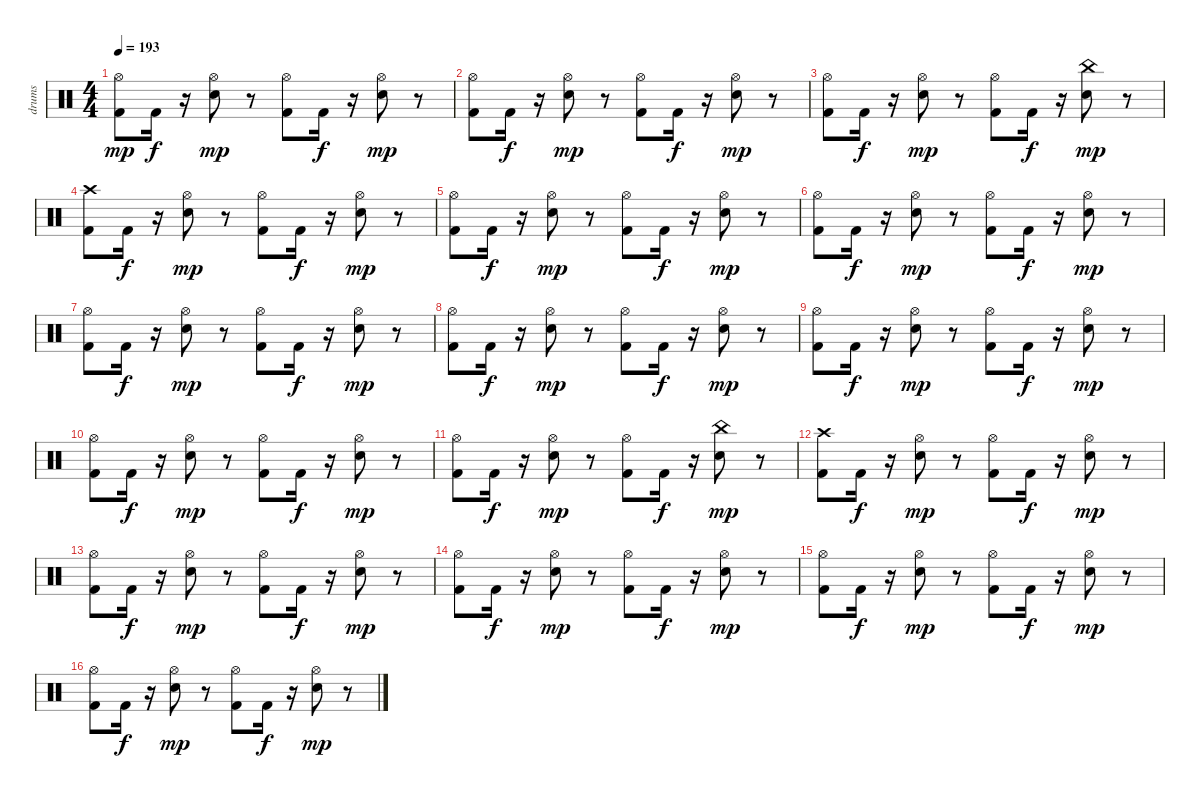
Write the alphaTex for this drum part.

\track ("drums" "drums") {instrument percussion}
\staff {score}
\articulation defaults
\ts (4 4)
\tempo 193
\clef neutral
\ks c
("Kick (hit) 2" "Hi-Hat (open)").8{dy mp} "Kick (hit) 2".16{dy f} r.16 ("Snare (hit) 2" "Hi-Hat (open)").8{dy mp} r.8 ("Kick (hit) 2" "Hi-Hat (open)").8 "Kick (hit) 2".16{dy f} r.16 ("Snare (hit) 2" "Hi-Hat (open)").8{dy mp} r.8 |
("Kick (hit) 2" "Hi-Hat (open)").8 "Kick (hit) 2".16{dy f} r.16 ("Snare (hit) 2" "Hi-Hat (open)").8{dy mp} r.8 ("Kick (hit) 2" "Hi-Hat (open)").8 "Kick (hit) 2".16{dy f} r.16 ("Snare (hit) 2" "Hi-Hat (open)").8{dy mp} r.8 |
("Kick (hit) 2" "Hi-Hat (open)").8 "Kick (hit) 2".16{dy f} r.16 ("Snare (hit) 2" "Hi-Hat (open)").8{dy mp} r.8 ("Kick (hit) 2" "Hi-Hat (open)").8 "Kick (hit) 2".16{dy f} r.16 ("Snare (hit) 2" "China (hit)").8{dy mp} r.8 |
("Kick (hit) 2" "Crash high (hit)").8 "Kick (hit) 2".16{dy f} r.16 ("Snare (hit) 2" "Hi-Hat (open)").8{dy mp} r.8 ("Kick (hit) 2" "Hi-Hat (open)").8 "Kick (hit) 2".16{dy f} r.16 ("Snare (hit) 2" "Hi-Hat (open)").8{dy mp} r.8 |
("Kick (hit) 2" "Hi-Hat (open)").8 "Kick (hit) 2".16{dy f} r.16 ("Snare (hit) 2" "Hi-Hat (open)").8{dy mp} r.8 ("Kick (hit) 2" "Hi-Hat (open)").8 "Kick (hit) 2".16{dy f} r.16 ("Snare (hit) 2" "Hi-Hat (open)").8{dy mp} r.8 |
("Kick (hit) 2" "Hi-Hat (open)").8 "Kick (hit) 2".16{dy f} r.16 ("Snare (hit) 2" "Hi-Hat (open)").8{dy mp} r.8 ("Kick (hit) 2" "Hi-Hat (open)").8 "Kick (hit) 2".16{dy f} r.16 ("Snare (hit) 2" "Hi-Hat (open)").8{dy mp} r.8 |
("Kick (hit) 2" "Hi-Hat (open)").8 "Kick (hit) 2".16{dy f} r.16 ("Snare (hit) 2" "Hi-Hat (open)").8{dy mp} r.8 ("Kick (hit) 2" "Hi-Hat (open)").8 "Kick (hit) 2".16{dy f} r.16 ("Snare (hit) 2" "Hi-Hat (open)").8{dy mp} r.8 |
("Kick (hit) 2" "Hi-Hat (open)").8 "Kick (hit) 2".16{dy f} r.16 ("Snare (hit) 2" "Hi-Hat (open)").8{dy mp} r.8 ("Kick (hit) 2" "Hi-Hat (open)").8 "Kick (hit) 2".16{dy f} r.16 ("Snare (hit) 2" "Hi-Hat (open)").8{dy mp} r.8 |
("Kick (hit) 2" "Hi-Hat (open)").8 "Kick (hit) 2".16{dy f} r.16 ("Snare (hit) 2" "Hi-Hat (open)").8{dy mp} r.8 ("Kick (hit) 2" "Hi-Hat (open)").8 "Kick (hit) 2".16{dy f} r.16 ("Snare (hit) 2" "Hi-Hat (open)").8{dy mp} r.8 |
("Kick (hit) 2" "Hi-Hat (open)").8 "Kick (hit) 2".16{dy f} r.16 ("Snare (hit) 2" "Hi-Hat (open)").8{dy mp} r.8 ("Kick (hit) 2" "Hi-Hat (open)").8 "Kick (hit) 2".16{dy f} r.16 ("Snare (hit) 2" "Hi-Hat (open)").8{dy mp} r.8 |
("Kick (hit) 2" "Hi-Hat (open)").8 "Kick (hit) 2".16{dy f} r.16 ("Snare (hit) 2" "Hi-Hat (open)").8{dy mp} r.8 ("Kick (hit) 2" "Hi-Hat (open)").8 "Kick (hit) 2".16{dy f} r.16 ("Snare (hit) 2" "China (hit)").8{dy mp} r.8 |
("Kick (hit) 2" "Crash high (hit)").8 "Kick (hit) 2".16{dy f} r.16 ("Snare (hit) 2" "Hi-Hat (open)").8{dy mp} r.8 ("Kick (hit) 2" "Hi-Hat (open)").8 "Kick (hit) 2".16{dy f} r.16 ("Snare (hit) 2" "Hi-Hat (open)").8{dy mp} r.8 |
("Kick (hit) 2" "Hi-Hat (open)").8 "Kick (hit) 2".16{dy f} r.16 ("Snare (hit) 2" "Hi-Hat (open)").8{dy mp} r.8 ("Kick (hit) 2" "Hi-Hat (open)").8 "Kick (hit) 2".16{dy f} r.16 ("Snare (hit) 2" "Hi-Hat (open)").8{dy mp} r.8 |
("Kick (hit) 2" "Hi-Hat (open)").8 "Kick (hit) 2".16{dy f} r.16 ("Snare (hit) 2" "Hi-Hat (open)").8{dy mp} r.8 ("Kick (hit) 2" "Hi-Hat (open)").8 "Kick (hit) 2".16{dy f} r.16 ("Snare (hit) 2" "Hi-Hat (open)").8{dy mp} r.8 |
("Kick (hit) 2" "Hi-Hat (open)").8 "Kick (hit) 2".16{dy f} r.16 ("Snare (hit) 2" "Hi-Hat (open)").8{dy mp} r.8 ("Kick (hit) 2" "Hi-Hat (open)").8 "Kick (hit) 2".16{dy f} r.16 ("Snare (hit) 2" "Hi-Hat (open)").8{dy mp} r.8 |
("Kick (hit) 2" "Hi-Hat (open)").8 "Kick (hit) 2".16{dy f} r.16 ("Snare (hit) 2" "Hi-Hat (open)").8{dy mp} r.8 ("Kick (hit) 2" "Hi-Hat (open)").8 "Kick (hit) 2".16{dy f} r.16 ("Snare (hit) 2" "Hi-Hat (open)").8{dy mp} r.8
